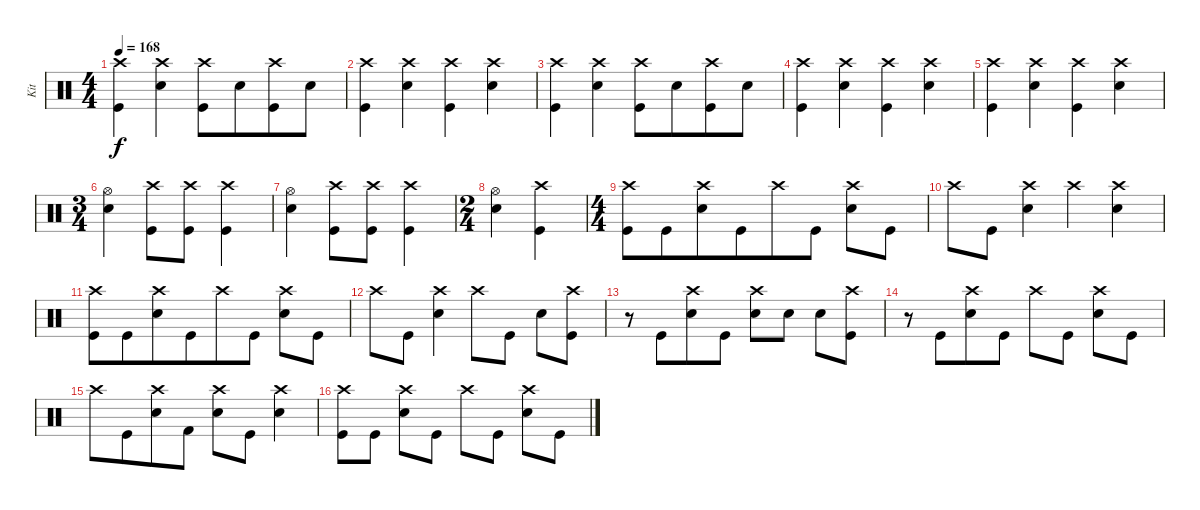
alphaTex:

\track ("Kit" "Kit") {instrument percussion}
\staff {score}
\articulation defaults
\ts (4 4)
\tempo 168
\clef neutral
\ks c
("Crash high (hit)" "Kick (hit)").4{dy f} ("Crash high (hit)" "Electric Snare (hit)").4{beam merge} ("Crash high (hit)" "Kick (hit)").8 "Electric Snare (hit)".8{beam merge} ("Crash high (hit)" "Kick (hit)").8 "Electric Snare (hit)".8 |
("Crash high (hit)" "Kick (hit)").4 ("Crash high (hit)" "Electric Snare (hit)").4{beam merge} ("Crash high (hit)" "Kick (hit)").4 ("Crash high (hit)" "Electric Snare (hit)").4 |
("Crash high (hit)" "Kick (hit)").4 ("Crash high (hit)" "Electric Snare (hit)").4{beam merge} ("Crash high (hit)" "Kick (hit)").8 "Electric Snare (hit)".8{beam merge} ("Crash high (hit)" "Kick (hit)").8 "Electric Snare (hit)".8 |
("Crash high (hit)" "Kick (hit)").4 ("Crash high (hit)" "Electric Snare (hit)").4{beam merge} ("Crash high (hit)" "Kick (hit)").4 ("Crash high (hit)" "Electric Snare (hit)").4 |
("Crash high (hit)" "Kick (hit)").4 ("Crash high (hit)" "Electric Snare (hit)").4{beam merge} ("Crash high (hit)" "Kick (hit)").4 ("Crash high (hit)" "Electric Snare (hit)").4 |
\ts (3 4)
("Hi-Hat (open)" "Electric Snare (hit)").4{beam merge} ("Crash high (hit)" "Kick (hit)").8{beam merge} ("Crash high (hit)" "Kick (hit)").8{beam merge} ("Crash high (hit)" "Kick (hit)").4 |
("Hi-Hat (open)" "Electric Snare (hit)").4{beam merge} ("Crash high (hit)" "Kick (hit)").8{beam merge} ("Crash high (hit)" "Kick (hit)").8{beam merge} ("Crash high (hit)" "Kick (hit)").4 |
\ts (2 4)
("Hi-Hat (open)" "Electric Snare (hit)").4 ("Crash high (hit)" "Kick (hit)").4 |
\ts (4 4)
("Crash high (hit)" "Kick (hit)").8 "Kick (hit)".8{beam merge} ("Crash high (hit)" "Electric Snare (hit)").8 "Kick (hit)".8{beam merge} "Crash high (hit)".8 "Kick (hit)".8 ("Crash high (hit)" "Electric Snare (hit)").8 "Kick (hit)".8 |
"Crash high (hit)".8{beam merge} "Kick (hit)".8 ("Crash high (hit)" "Electric Snare (hit)").4{beam merge} "Crash high (hit)".4 ("Crash high (hit)" "Electric Snare (hit)").4 |
("Crash high (hit)" "Kick (hit)").8 "Kick (hit)".8{beam merge} ("Crash high (hit)" "Electric Snare (hit)").8 "Kick (hit)".8{beam merge} "Crash high (hit)".8 "Kick (hit)".8 ("Crash high (hit)" "Electric Snare (hit)").8 "Kick (hit)".8 |
"Crash high (hit)".8{beam merge} "Kick (hit)".8 ("Crash high (hit)" "Electric Snare (hit)").4{beam merge} "Crash high (hit)".8{beam merge} "Kick (hit)".8 "Electric Snare (hit)".8 ("Crash high (hit)" "Kick (hit)").8 |
r.8 "Kick (hit)".8{beam merge} ("Crash high (hit)" "Electric Snare (hit)").8{beam merge} "Kick (hit)".8 ("Crash high (hit)" "Electric Snare (hit)").8 "Electric Snare (hit)".8 "Electric Snare (hit)".8 ("Crash high (hit)" "Kick (hit)").8 |
r.8{beam merge} "Kick (hit)".8{beam merge} ("Crash high (hit)" "Electric Snare (hit)").8 "Kick (hit)".8 "Crash high (hit)".8{beam merge} "Kick (hit)".8 ("Crash high (hit)" "Electric Snare (hit)").8{beam merge} "Kick (hit)".8 |
"Crash high (hit)".8 "Kick (hit)".8{beam merge} ("Crash high (hit)" "Electric Snare (hit)").8 "Kick (hit) 2".8 ("Crash high (hit)" "Electric Snare (hit)").8 "Kick (hit)".8 ("Crash high (hit)" "Electric Snare (hit)").4 |
("Crash high (hit)" "Kick (hit)").8{beam merge} "Kick (hit)".8 ("Crash high (hit)" "Electric Snare (hit)").8 "Kick (hit)".8 "Crash high (hit)".8 "Kick (hit)".8 ("Crash high (hit)" "Electric Snare (hit)").8 "Kick (hit)".8
